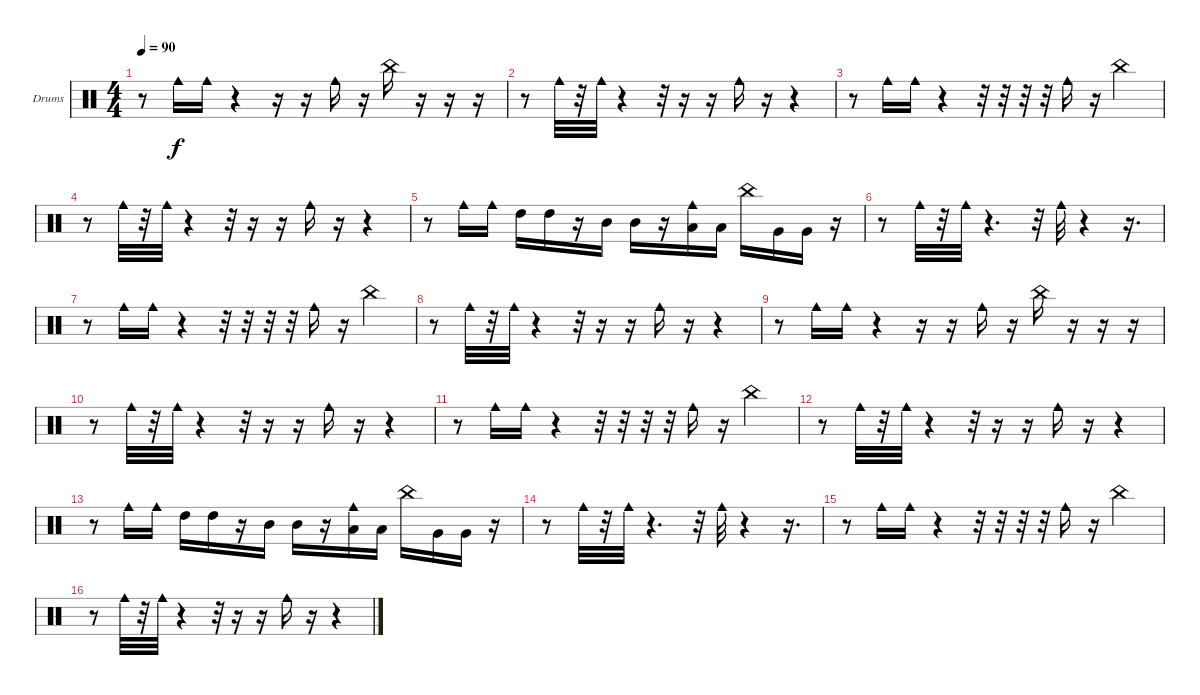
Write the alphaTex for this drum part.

\defaultSystemsLayout 4
\bracketExtendMode groupsimilarinstruments
\firstSystemTrackNameOrientation horizontal
\otherSystemsTrackNameOrientation horizontal
\track ("Drumkit" "Drums") {instrument percussion}
\staff {score}
\articulation defaults
\ts (4 4)
\tempo 90
\clef neutral
\scale
0.333333
\ks c
r.8{dy f} "Cowbell medium (hit)".16 "Cowbell medium (hit)".16 r.4 r.16 r.16 "Cowbell medium (hit)".16 r.16 "China (hit)".16 r.16 r.16 r.16 |
\scale
0.333333 r.8 "Cowbell medium (hit)".32 r.32 "Cowbell medium (hit)".32 r.4 r.32 r.16 r.16 "Cowbell medium (hit)".16 r.16 r.4 |
\scale
0.333333 r.8 "Cowbell medium (hit)".16 "Cowbell medium (hit)".16 r.4 r.32 r.32 r.32 r.32 "Cowbell medium (hit)".16 r.16 "China (hit)".4 |
\scale
0.333333 r.8 "Cowbell medium (hit)".32 r.32 "Cowbell medium (hit)".32 r.4 r.32 r.16 r.16 "Cowbell medium (hit)".16 r.16 r.4 |
\scale
0.333333 r.8 "Cowbell medium (hit)".16 "Cowbell medium (hit)".16 "High Tom (hit)".16 "High Tom (hit)".16 r.16 "Mid Tom (hit)".16 "Mid Tom (hit)".16 r.16 ("Low Tom (hit)" "Cowbell medium (hit)").16 "Low Tom (hit)".16 "China (hit)".16 "Very Low Tom (hit)".16 "Very Low Tom (hit)".16 r.16 |
\scale
0.333333 r.8 "Cowbell medium (hit)".32 r.32 "Cowbell medium (hit)".32 r.4{d} r.32 "Cowbell medium (hit)".32 r.4 r.16{d} |
\scale
0.333333 r.8 "Cowbell medium (hit)".16 "Cowbell medium (hit)".16 r.4 r.32 r.32 r.32 r.32 "Cowbell medium (hit)".16 r.16 "China (hit)".4 |
\scale
0.333333 r.8 "Cowbell medium (hit)".32 r.32 "Cowbell medium (hit)".32 r.4 r.32 r.16 r.16 "Cowbell medium (hit)".16 r.16 r.4 |
\scale
0.333333 r.8 "Cowbell medium (hit)".16 "Cowbell medium (hit)".16 r.4 r.16 r.16 "Cowbell medium (hit)".16 r.16 "China (hit)".16 r.16 r.16 r.16 |
\scale
0.333333 r.8 "Cowbell medium (hit)".32 r.32 "Cowbell medium (hit)".32 r.4 r.32 r.16 r.16 "Cowbell medium (hit)".16 r.16 r.4 |
\scale
0.333333 r.8 "Cowbell medium (hit)".16 "Cowbell medium (hit)".16 r.4 r.32 r.32 r.32 r.32 "Cowbell medium (hit)".16 r.16 "China (hit)".4 |
\scale
0.333333 r.8 "Cowbell medium (hit)".32 r.32 "Cowbell medium (hit)".32 r.4 r.32 r.16 r.16 "Cowbell medium (hit)".16 r.16 r.4 |
\scale
0.333333 r.8 "Cowbell medium (hit)".16 "Cowbell medium (hit)".16 "High Tom (hit)".16 "High Tom (hit)".16 r.16 "Mid Tom (hit)".16 "Mid Tom (hit)".16 r.16 ("Low Tom (hit)" "Cowbell medium (hit)").16 "Low Tom (hit)".16 "China (hit)".16 "Very Low Tom (hit)".16 "Very Low Tom (hit)".16 r.16 |
\scale
0.333333 r.8 "Cowbell medium (hit)".32 r.32 "Cowbell medium (hit)".32 r.4{d} r.32 "Cowbell medium (hit)".32 r.4 r.16{d} |
\scale
0.333333 r.8 "Cowbell medium (hit)".16 "Cowbell medium (hit)".16 r.4 r.32 r.32 r.32 r.32 "Cowbell medium (hit)".16 r.16 "China (hit)".4 |
\scale
0.333333 r.8 "Cowbell medium (hit)".32 r.32 "Cowbell medium (hit)".32 r.4 r.32 r.16 r.16 "Cowbell medium (hit)".16 r.16 r.4
